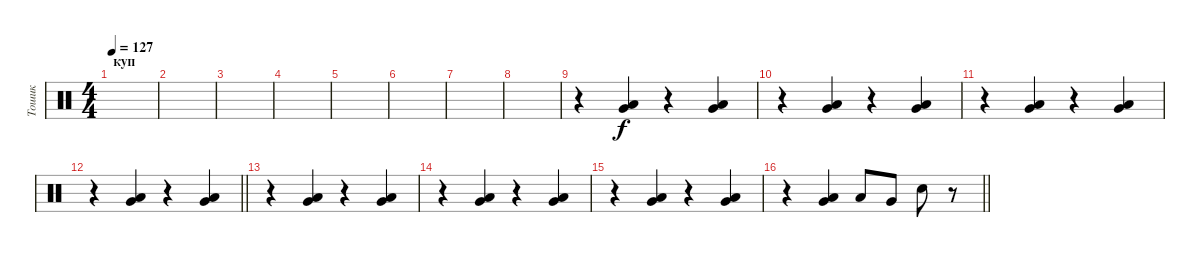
\track ("Тошик" "Тошик") {instrument percussion}
\staff {score}
\articulation defaults
\ts (4 4)
\section ("" "куп")
\tempo 127
\clef neutral
\ks c
|
|
|
|
|
|
|
|
r.4 ("Very Low Tom (hit)" "Low Floor Tom (hit)").4 r.4 ("Very Low Tom (hit)" "Low Floor Tom (hit)").4 |
r.4 ("Very Low Tom (hit)" "Low Floor Tom (hit)").4 r.4 ("Very Low Tom (hit)" "Low Floor Tom (hit)").4 |
r.4 ("Very Low Tom (hit)" "Low Floor Tom (hit)").4 r.4 ("Very Low Tom (hit)" "Low Floor Tom (hit)").4 |
\barLineRight lightlight
r.4 ("Very Low Tom (hit)" "Low Floor Tom (hit)").4 r.4 ("Very Low Tom (hit)" "Low Floor Tom (hit)").4 |
r.4 ("Very Low Tom (hit)" "Low Floor Tom (hit)").4 r.4 ("Very Low Tom (hit)" "Low Floor Tom (hit)").4 |
r.4 ("Very Low Tom (hit)" "Low Floor Tom (hit)").4 r.4 ("Very Low Tom (hit)" "Low Floor Tom (hit)").4 |
r.4 ("Very Low Tom (hit)" "Low Floor Tom (hit)").4 r.4 ("Very Low Tom (hit)" "Low Floor Tom (hit)").4 |
\barLineRight lightlight
r.4 ("Very Low Tom (hit)" "Low Floor Tom (hit)").4 "Low Tom (hit)".8 "Very Low Tom (hit)".8 "Snare (hit) 2".8 r.8
